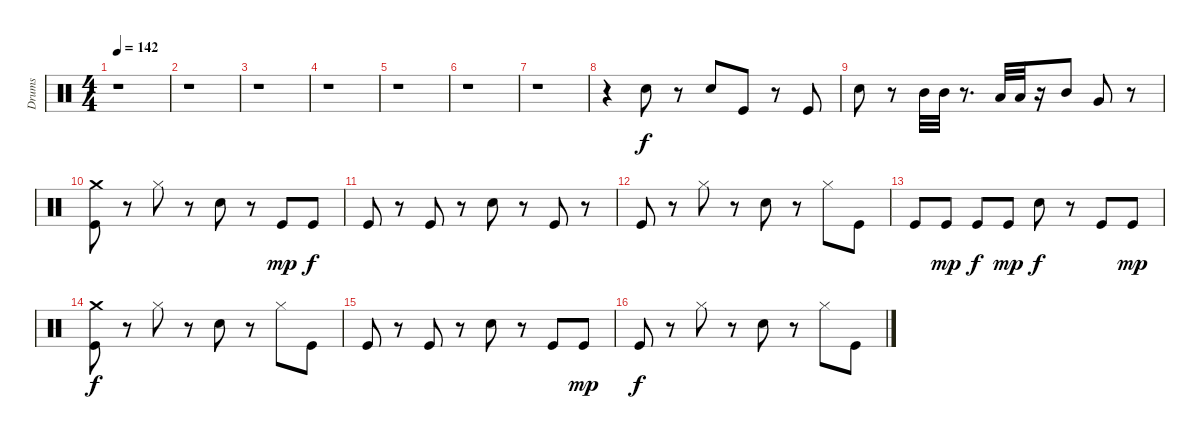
\track ("Drums" "Drums") {instrument percussion}
\staff {score}
\articulation defaults
\ts (4 4)
\tempo 142
\clef neutral
\ks c
r.1{dy f} |
r.1 |
r.1 |
r.1 |
r.1 |
r.1 |
r.1 |
r.4 "Electric Snare (hit)".8 r.8 "Electric Snare (hit)".8 "Kick (hit)".8 r.8 "Kick (hit)".8 |
"Electric Snare (hit)".8 r.8 "Mid Tom (hit)".32 "Mid Tom (hit)".32 r.8{d} "Low Tom (hit)".32 "Low Tom (hit)".32 r.16 "Mid Tom (hit)".8 "Very Low Tom (hit)".8 r.8 |
("Crash medium (hit)" "Kick (hit)").8 r.8 "Hi-Hat (closed)".8 r.8 "Electric Snare (hit)".8 r.8 "Kick (hit)".8{dy mp} "Kick (hit)".8{dy f} |
"Kick (hit)".8 r.8 "Kick (hit)".8 r.8 "Electric Snare (hit)".8 r.8 "Kick (hit)".8 r.8 |
"Kick (hit)".8 r.8 "Hi-Hat (closed)".8 r.8 "Electric Snare (hit)".8 r.8 "Hi-Hat (closed)".8 "Kick (hit)".8 |
"Kick (hit)".8 "Kick (hit)".8{dy mp} "Kick (hit)".8{dy f} "Kick (hit)".8{dy mp} "Electric Snare (hit)".8{dy f} r.8 "Kick (hit)".8 "Kick (hit)".8{dy mp} |
("Crash medium (hit)" "Kick (hit)").8{dy f} r.8 "Hi-Hat (closed)".8 r.8 "Electric Snare (hit)".8 r.8 "Hi-Hat (closed)".8 "Kick (hit)".8 |
"Kick (hit)".8 r.8 "Kick (hit)".8 r.8 "Electric Snare (hit)".8 r.8 "Kick (hit)".8 "Kick (hit)".8{dy mp} |
"Kick (hit)".8{dy f} r.8 "Hi-Hat (closed)".8 r.8 "Electric Snare (hit)".8 r.8 "Hi-Hat (closed)".8 "Kick (hit)".8
